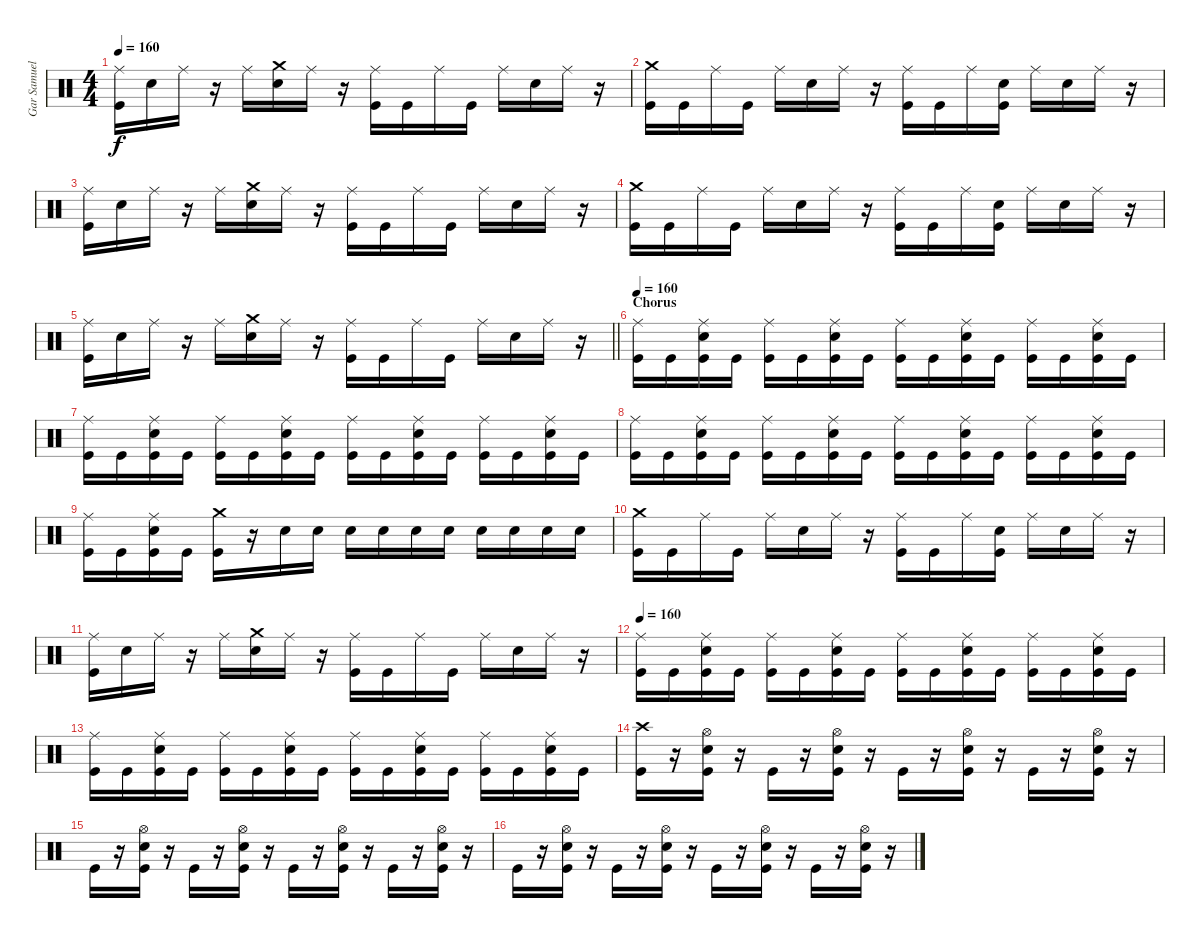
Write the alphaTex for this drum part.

\track ("Gar Samuelson" "Gar Samuel") {instrument percussion}
\staff {score}
\articulation defaults
\ts (4 4)
\tempo 160
\clef neutral
\ks c
("Ride (middle)" "Kick (hit)").16{dy f} "Snare (hit) 2".16 "Ride (middle)".16 r.16 "Ride (middle)".16 ("Crash medium (hit)" "Snare (hit) 2").16 "Ride (middle)".16 r.16 ("Ride (middle)" "Kick (hit)").16 "Kick (hit)".16 "Ride (middle)".16 "Kick (hit)".16 "Ride (middle)".16 "Snare (hit) 2".16 "Ride (middle)".16 r.16 |
("Crash medium (hit)" "Kick (hit)").16 "Kick (hit)".16 "Ride (middle)".16 "Kick (hit)".16 "Ride (middle)".16 "Snare (hit) 2".16 "Ride (middle)".16 r.16 ("Ride (middle)" "Kick (hit)").16 "Kick (hit)".16 "Ride (middle)".16 ("Snare (hit) 2" "Kick (hit)").16 "Ride (middle)".16 "Snare (hit) 2".16 "Ride (middle)".16 r.16 |
("Ride (middle)" "Kick (hit)").16 "Snare (hit) 2".16 "Ride (middle)".16 r.16 "Ride (middle)".16 ("Crash medium (hit)" "Snare (hit) 2").16 "Ride (middle)".16 r.16 ("Ride (middle)" "Kick (hit)").16 "Kick (hit)".16 "Ride (middle)".16 "Kick (hit)".16 "Ride (middle)".16 "Snare (hit) 2".16 "Ride (middle)".16 r.16 |
("Crash medium (hit)" "Kick (hit)").16 "Kick (hit)".16 "Ride (middle)".16 "Kick (hit)".16 "Ride (middle)".16 "Snare (hit) 2".16 "Ride (middle)".16 r.16 ("Ride (middle)" "Kick (hit)").16 "Kick (hit)".16 "Ride (middle)".16 ("Snare (hit) 2" "Kick (hit)").16 "Ride (middle)".16 "Snare (hit) 2".16 "Ride (middle)".16 r.16 |
\barLineRight lightlight
("Ride (middle)" "Kick (hit)").16 "Snare (hit) 2".16 "Ride (middle)".16 r.16 "Ride (middle)".16 ("Crash medium (hit)" "Snare (hit) 2").16 "Ride (middle)".16 r.16 ("Ride (middle)" "Kick (hit)").16 "Kick (hit)".16 "Ride (middle)".16 "Kick (hit)".16 "Ride (middle)".16 "Snare (hit) 2".16 "Ride (middle)".16 r.16 |
\section ("" "Chorus")
\tempo 160
("Ride (middle)" "Kick (hit)").16 "Kick (hit)".16 ("Ride (middle)" "Snare (hit) 2" "Kick (hit)").16 "Kick (hit)".16 ("Ride (middle)" "Kick (hit)").16 "Kick (hit)".16 ("Ride (middle)" "Snare (hit) 2" "Kick (hit)").16 "Kick (hit)".16 ("Ride (middle)" "Kick (hit)").16 "Kick (hit)".16 ("Ride (middle)" "Snare (hit) 2" "Kick (hit)").16 "Kick (hit)".16 ("Ride (middle)" "Kick (hit)").16 "Kick (hit)".16 ("Ride (middle)" "Snare (hit) 2" "Kick (hit)").16 "Kick (hit)".16 |
("Ride (middle)" "Kick (hit)").16 "Kick (hit)".16 ("Ride (middle)" "Snare (hit) 2" "Kick (hit)").16 "Kick (hit)".16 ("Ride (middle)" "Kick (hit)").16 "Kick (hit)".16 ("Ride (middle)" "Snare (hit) 2" "Kick (hit)").16 "Kick (hit)".16 ("Ride (middle)" "Kick (hit)").16 "Kick (hit)".16 ("Ride (middle)" "Snare (hit) 2" "Kick (hit)").16 "Kick (hit)".16 ("Ride (middle)" "Kick (hit)").16 "Kick (hit)".16 ("Ride (middle)" "Snare (hit) 2" "Kick (hit)").16 "Kick (hit)".16 |
("Ride (middle)" "Kick (hit)").16 "Kick (hit)".16 ("Ride (middle)" "Snare (hit) 2" "Kick (hit)").16 "Kick (hit)".16 ("Ride (middle)" "Kick (hit)").16 "Kick (hit)".16 ("Ride (middle)" "Snare (hit) 2" "Kick (hit)").16 "Kick (hit)".16 ("Ride (middle)" "Kick (hit)").16 "Kick (hit)".16 ("Ride (middle)" "Snare (hit) 2" "Kick (hit)").16 "Kick (hit)".16 ("Ride (middle)" "Kick (hit)").16 "Kick (hit)".16 ("Ride (middle)" "Snare (hit) 2" "Kick (hit)").16 "Kick (hit)".16 |
("Ride (middle)" "Kick (hit)").16 "Kick (hit)".16 ("Ride (middle)" "Snare (hit) 2" "Kick (hit)").16 "Kick (hit)".16 ("Crash medium (hit)" "Kick (hit)").16 r.16 "Snare (hit) 2".16 "Snare (hit) 2".16 "Snare (hit) 2".16 "Snare (hit) 2".16 "Snare (hit) 2".16 "Snare (hit) 2".16 "Snare (hit) 2".16 "Snare (hit) 2".16 "Snare (hit) 2".16 "Snare (hit) 2".16 |
("Crash medium (hit)" "Kick (hit)").16 "Kick (hit)".16 "Ride (middle)".16 "Kick (hit)".16 "Ride (middle)".16 "Snare (hit) 2".16 "Ride (middle)".16 r.16 ("Ride (middle)" "Kick (hit)").16 "Kick (hit)".16 "Ride (middle)".16 ("Snare (hit) 2" "Kick (hit)").16 "Ride (middle)".16 "Snare (hit) 2".16 "Ride (middle)".16 r.16 |
("Ride (middle)" "Kick (hit)").16 "Snare (hit) 2".16 "Ride (middle)".16 r.16 "Ride (middle)".16 ("Crash medium (hit)" "Snare (hit) 2").16 "Ride (middle)".16 r.16 ("Ride (middle)" "Kick (hit)").16 "Kick (hit)".16 "Ride (middle)".16 "Kick (hit)".16 "Ride (middle)".16 "Snare (hit) 2".16 "Ride (middle)".16 r.16 |
\tempo 160
("Ride (middle)" "Kick (hit)").16 "Kick (hit)".16 ("Ride (middle)" "Snare (hit) 2" "Kick (hit)").16 "Kick (hit)".16 ("Ride (middle)" "Kick (hit)").16 "Kick (hit)".16 ("Ride (middle)" "Snare (hit) 2" "Kick (hit)").16 "Kick (hit)".16 ("Ride (middle)" "Kick (hit)").16 "Kick (hit)".16 ("Ride (middle)" "Snare (hit) 2" "Kick (hit)").16 "Kick (hit)".16 ("Ride (middle)" "Kick (hit)").16 "Kick (hit)".16 ("Ride (middle)" "Snare (hit) 2" "Kick (hit)").16 "Kick (hit)".16 |
("Ride (middle)" "Kick (hit)").16 "Kick (hit)".16 ("Ride (middle)" "Snare (hit) 2" "Kick (hit)").16 "Kick (hit)".16 ("Ride (middle)" "Kick (hit)").16 "Kick (hit)".16 ("Ride (middle)" "Snare (hit) 2" "Kick (hit)").16 "Kick (hit)".16 ("Ride (middle)" "Kick (hit)").16 "Kick (hit)".16 ("Ride (middle)" "Snare (hit) 2" "Kick (hit)").16 "Kick (hit)".16 ("Ride (middle)" "Kick (hit)").16 "Kick (hit)".16 ("Ride (middle)" "Snare (hit) 2" "Kick (hit)").16 "Kick (hit)".16 |
("Crash high (hit)" "Kick (hit)").16 r.16 ("Hi-Hat (open)" "Snare (hit) 2" "Kick (hit)").16 r.16 "Kick (hit)".16 r.16 ("Hi-Hat (open)" "Snare (hit) 2" "Kick (hit)").16 r.16 "Kick (hit)".16 r.16 ("Hi-Hat (open)" "Snare (hit) 2" "Kick (hit)").16 r.16 "Kick (hit)".16 r.16 ("Hi-Hat (open)" "Snare (hit) 2" "Kick (hit)").16 r.16 |
"Kick (hit)".16 r.16 ("Hi-Hat (open)" "Snare (hit) 2" "Kick (hit)").16 r.16 "Kick (hit)".16 r.16 ("Hi-Hat (open)" "Snare (hit) 2" "Kick (hit)").16 r.16 "Kick (hit)".16 r.16 ("Hi-Hat (open)" "Snare (hit) 2" "Kick (hit)").16 r.16 "Kick (hit)".16 r.16 ("Hi-Hat (open)" "Snare (hit) 2" "Kick (hit)").16 r.16 |
"Kick (hit)".16 r.16 ("Hi-Hat (open)" "Snare (hit) 2" "Kick (hit)").16 r.16 "Kick (hit)".16 r.16 ("Hi-Hat (open)" "Snare (hit) 2" "Kick (hit)").16 r.16 "Kick (hit)".16 r.16 ("Hi-Hat (open)" "Snare (hit) 2" "Kick (hit)").16 r.16 "Kick (hit)".16 r.16 ("Hi-Hat (open)" "Snare (hit) 2" "Kick (hit)").16 r.16
